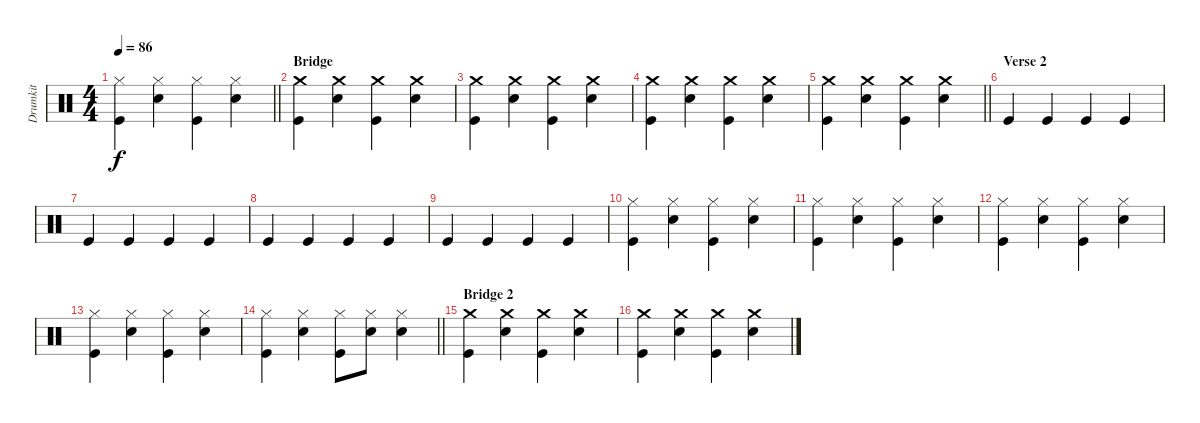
\track ("Drumkit" "Drumkit") {instrument percussion}
\staff {score}
\articulation defaults
\ts (4 4)
\tempo 86
\clef neutral
\barLineRight lightlight
\ks c
("Kick (hit)" "Hi-Hat (closed)").4{dy f} ("Snare (hit) 2" "Hi-Hat (closed)").4 ("Hi-Hat (closed)" "Kick (hit)").4 ("Snare (hit) 2" "Hi-Hat (closed)").4 |
\section ("" "Bridge")
("Kick (hit)" "Crash medium (hit)").4 ("Snare (hit) 2" "Crash medium (hit)").4 ("Kick (hit)" "Crash medium (hit)").4 ("Snare (hit) 2" "Crash medium (hit)").4 |
("Kick (hit)" "Crash medium (hit)").4 ("Snare (hit) 2" "Crash medium (hit)").4 ("Kick (hit)" "Crash medium (hit)").4 ("Snare (hit) 2" "Crash medium (hit)").4 |
("Kick (hit)" "Crash medium (hit)").4 ("Snare (hit) 2" "Crash medium (hit)").4 ("Kick (hit)" "Crash medium (hit)").4 ("Snare (hit) 2" "Crash medium (hit)").4 |
\barLineRight lightlight
("Kick (hit)" "Crash medium (hit)").4 ("Snare (hit) 2" "Crash medium (hit)").4 ("Kick (hit)" "Crash medium (hit)").4 ("Snare (hit) 2" "Crash medium (hit)").4 |
\section ("" "Verse 2")
"Kick (hit)".4 "Kick (hit)".4 "Kick (hit)".4 "Kick (hit)".4 |
"Kick (hit)".4 "Kick (hit)".4 "Kick (hit)".4 "Kick (hit)".4 |
"Kick (hit)".4 "Kick (hit)".4 "Kick (hit)".4 "Kick (hit)".4 |
"Kick (hit)".4 "Kick (hit)".4 "Kick (hit)".4 "Kick (hit)".4 |
("Kick (hit)" "Hi-Hat (closed)").4 ("Snare (hit) 2" "Hi-Hat (closed)").4 ("Hi-Hat (closed)" "Kick (hit)").4 ("Snare (hit) 2" "Hi-Hat (closed)").4 |
("Kick (hit)" "Hi-Hat (closed)").4 ("Snare (hit) 2" "Hi-Hat (closed)").4 ("Hi-Hat (closed)" "Kick (hit)").4 ("Snare (hit) 2" "Hi-Hat (closed)").4 |
("Kick (hit)" "Hi-Hat (closed)").4 ("Snare (hit) 2" "Hi-Hat (closed)").4 ("Hi-Hat (closed)" "Kick (hit)").4 ("Snare (hit) 2" "Hi-Hat (closed)").4 |
("Kick (hit)" "Hi-Hat (closed)").4 ("Snare (hit) 2" "Hi-Hat (closed)").4 ("Hi-Hat (closed)" "Kick (hit)").4 ("Snare (hit) 2" "Hi-Hat (closed)").4 |
\barLineRight lightlight
("Kick (hit)" "Hi-Hat (closed)").4 ("Snare (hit) 2" "Hi-Hat (closed)").4 ("Hi-Hat (closed)" "Kick (hit)").8 ("Snare (hit) 2" "Hi-Hat (closed)").8 ("Snare (hit) 2" "Hi-Hat (closed)").4 |
\section ("" "Bridge 2")
("Kick (hit)" "Crash medium (hit)").4 ("Snare (hit) 2" "Crash medium (hit)").4 ("Kick (hit)" "Crash medium (hit)").4 ("Snare (hit) 2" "Crash medium (hit)").4 |
("Kick (hit)" "Crash medium (hit)").4 ("Snare (hit) 2" "Crash medium (hit)").4 ("Kick (hit)" "Crash medium (hit)").4 ("Snare (hit) 2" "Crash medium (hit)").4
